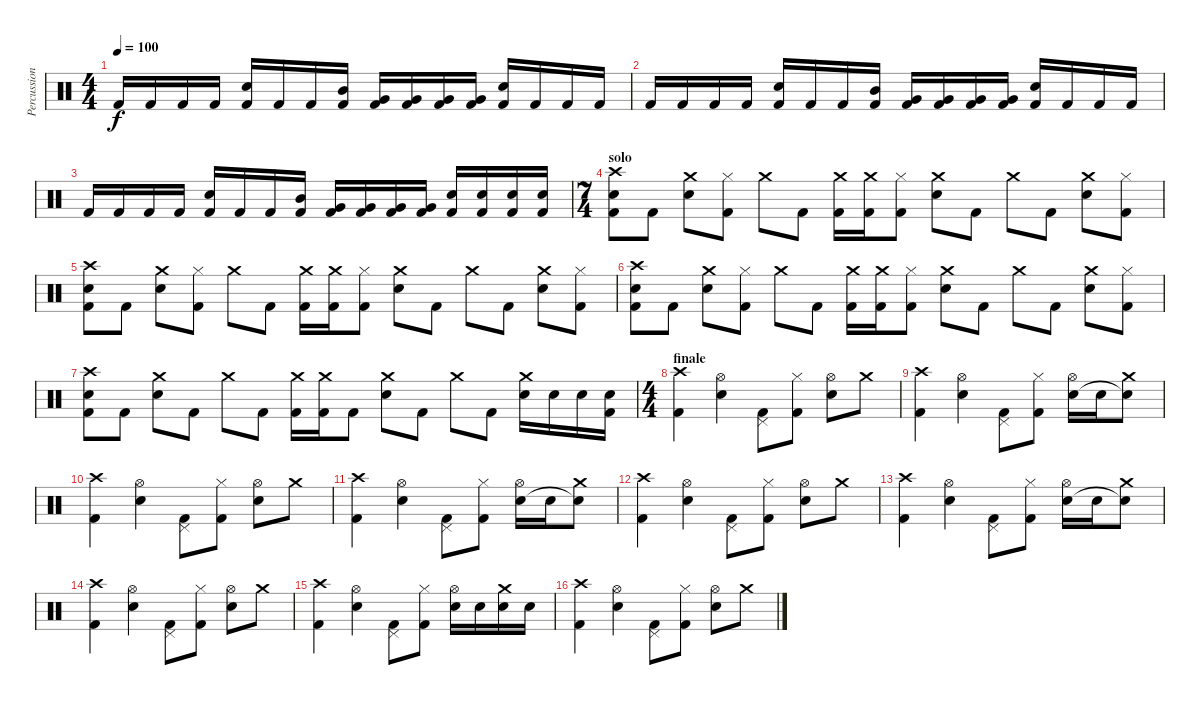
\track ("Percussioni" "Percussion") {instrument percussion}
\staff {score}
\articulation defaults
\ts (4 4)
\tempo 100
\clef neutral
\ks c "Kick (hit) 2".16{dy f} "Kick (hit) 2".16 "Kick (hit) 2".16 "Kick (hit) 2".16
("Snare (hit) 2" "Kick (hit) 2").16 "Kick (hit) 2".16 "Kick (hit) 2".16 ("Mid Tom (hit)" "Kick (hit) 2").16 ("Very Low Tom (hit)" "Kick (hit) 2").16 ("Very Low Tom (hit)" "Kick (hit) 2").16 ("Very Low Tom (hit)" "Kick (hit) 2").16 ("Very Low Tom (hit)" "Kick (hit) 2").16 ("Snare (hit) 2" "Kick (hit) 2").16 "Kick (hit) 2".16 "Kick (hit) 2".16 "Kick (hit) 2".16 |
"Kick (hit) 2".16 "Kick (hit) 2".16 "Kick (hit) 2".16 "Kick (hit) 2".16 ("Snare (hit) 2" "Kick (hit) 2").16 "Kick (hit) 2".16 "Kick (hit) 2".16 ("Mid Tom (hit)" "Kick (hit) 2").16 ("Very Low Tom (hit)" "Kick (hit) 2").16 ("Very Low Tom (hit)" "Kick (hit) 2").16 ("Very Low Tom (hit)" "Kick (hit) 2").16 ("Very Low Tom (hit)" "Kick (hit) 2").16 ("Snare (hit) 2" "Kick (hit) 2").16 "Kick (hit) 2".16 "Kick (hit) 2".16 "Kick (hit) 2".16 |
"Kick (hit) 2".16 "Kick (hit) 2".16 "Kick (hit) 2".16 "Kick (hit) 2".16 ("Snare (hit) 2" "Kick (hit) 2").16 "Kick (hit) 2".16 "Kick (hit) 2".16 ("Mid Tom (hit)" "Kick (hit) 2").16 ("Very Low Tom (hit)" "Kick (hit) 2").16 ("Very Low Tom (hit)" "Kick (hit) 2").16 ("Very Low Tom (hit)" "Kick (hit) 2").16 ("Very Low Tom (hit)" "Kick (hit) 2").16 ("Snare (hit) 2" "Kick (hit) 2").16 ("Snare (hit) 2" "Kick (hit) 2").16 ("Snare (hit) 2" "Kick (hit) 2").16 ("Snare (hit) 2" "Kick (hit) 2").16 |
\ts (7 4)
\section ("" "solo")
("Crash high (hit)" "Snare (hit) 2" "Kick (hit) 2").8 "Kick (hit) 2".8 ("Crash medium (hit)" "Snare (hit) 2").8 ("Hi-Hat (closed)" "Kick (hit) 2").8 "Crash medium (hit)".8 "Kick (hit) 2".8 ("Crash medium (hit)" "Kick (hit) 2").16 ("Crash medium (hit)" "Kick (hit) 2").16 ("Hi-Hat (closed)" "Kick (hit) 2").8 ("Crash medium (hit)" "Snare (hit) 2").8 "Kick (hit) 2".8 "Crash medium (hit)".8 "Kick (hit) 2".8 ("Crash medium (hit)" "Snare (hit) 2").8 ("Hi-Hat (closed)" "Kick (hit) 2").8 |
("Crash high (hit)" "Snare (hit) 2" "Kick (hit) 2").8 "Kick (hit) 2".8 ("Crash medium (hit)" "Snare (hit) 2").8 ("Hi-Hat (closed)" "Kick (hit) 2").8 "Crash medium (hit)".8 "Kick (hit) 2".8 ("Crash medium (hit)" "Kick (hit) 2").16 ("Crash medium (hit)" "Kick (hit) 2").16 ("Hi-Hat (closed)" "Kick (hit) 2").8 ("Crash medium (hit)" "Snare (hit) 2").8 "Kick (hit) 2".8 "Crash medium (hit)".8 "Kick (hit) 2".8 ("Crash medium (hit)" "Snare (hit) 2").8 ("Hi-Hat (closed)" "Kick (hit) 2").8 |
("Crash high (hit)" "Snare (hit) 2" "Kick (hit) 2").8 "Kick (hit) 2".8 ("Crash medium (hit)" "Snare (hit) 2").8 ("Hi-Hat (closed)" "Kick (hit) 2").8 "Crash medium (hit)".8 "Kick (hit) 2".8 ("Crash medium (hit)" "Kick (hit) 2").16 ("Crash medium (hit)" "Kick (hit) 2").16 ("Hi-Hat (closed)" "Kick (hit) 2").8 ("Crash medium (hit)" "Snare (hit) 2").8 "Kick (hit) 2".8 "Crash medium (hit)".8 "Kick (hit) 2".8 ("Crash medium (hit)" "Snare (hit) 2").8 ("Hi-Hat (closed)" "Kick (hit) 2").8 |
("Crash high (hit)" "Snare (hit) 2" "Kick (hit) 2").8 "Kick (hit) 2".8 ("Crash medium (hit)" "Snare (hit) 2").8 "Kick (hit) 2".8 "Crash medium (hit)".8 "Kick (hit) 2".8 ("Crash medium (hit)" "Kick (hit) 2").16 ("Crash medium (hit)" "Kick (hit) 2").16 "Kick (hit) 2".8 ("Crash medium (hit)" "Snare (hit) 2").8 "Kick (hit) 2".8 "Crash medium (hit)".8 "Kick (hit) 2".8 ("Crash medium (hit)" "Snare (hit) 2").16 "Snare (hit) 2".16 "Snare (hit) 2".16 ("Snare (hit) 2" "Kick (hit) 2").16 |
\ts (4 4)
\section ("" "finale")
("Crash high (hit)" "Kick (hit) 2").4 ("Hi-Hat (open)" "Snare (hit) 2").4 ("Pedal Hi-Hat (hit)" "Kick (hit) 2").8 ("Hi-Hat (closed)" "Kick (hit) 2").8 ("Hi-Hat (open)" "Snare (hit) 2").8 "Crash medium (hit)".8 |
("Crash high (hit)" "Kick (hit) 2").4 ("Hi-Hat (open)" "Snare (hit) 2").4 ("Pedal Hi-Hat (hit)" "Kick (hit) 2").8 ("Hi-Hat (closed)" "Kick (hit) 2").8 ("Hi-Hat (open)" "Snare (hit) 2").16 "Snare (hit) 2".16 ("Crash medium (hit)" "Snare (hit)"{t}).8 |
("Crash high (hit)" "Kick (hit) 2").4 ("Hi-Hat (open)" "Snare (hit) 2").4 ("Pedal Hi-Hat (hit)" "Kick (hit) 2").8 ("Hi-Hat (closed)" "Kick (hit) 2").8 ("Hi-Hat (open)" "Snare (hit) 2").8 "Crash medium (hit)".8 |
("Crash high (hit)" "Kick (hit) 2").4 ("Hi-Hat (open)" "Snare (hit) 2").4 ("Pedal Hi-Hat (hit)" "Kick (hit) 2").8 ("Hi-Hat (closed)" "Kick (hit) 2").8 ("Hi-Hat (open)" "Snare (hit) 2").16 "Snare (hit) 2".16 ("Crash medium (hit)" "Snare (hit)"{t}).8 |
("Crash high (hit)" "Kick (hit) 2").4 ("Hi-Hat (open)" "Snare (hit) 2").4 ("Pedal Hi-Hat (hit)" "Kick (hit) 2").8 ("Hi-Hat (closed)" "Kick (hit) 2").8 ("Hi-Hat (open)" "Snare (hit) 2").8 "Crash medium (hit)".8 |
("Crash high (hit)" "Kick (hit) 2").4 ("Hi-Hat (open)" "Snare (hit) 2").4 ("Pedal Hi-Hat (hit)" "Kick (hit) 2").8 ("Hi-Hat (closed)" "Kick (hit) 2").8 ("Hi-Hat (open)" "Snare (hit) 2").16 "Snare (hit) 2".16 ("Crash medium (hit)" "Snare (hit)"{t}).8 |
("Crash high (hit)" "Kick (hit) 2").4 ("Hi-Hat (open)" "Snare (hit) 2").4 ("Pedal Hi-Hat (hit)" "Kick (hit) 2").8 ("Hi-Hat (closed)" "Kick (hit) 2").8 ("Hi-Hat (open)" "Snare (hit) 2").8 "Crash medium (hit)".8 |
("Crash high (hit)" "Kick (hit) 2").4 ("Hi-Hat (open)" "Snare (hit) 2").4 ("Pedal Hi-Hat (hit)" "Kick (hit) 2").8 ("Hi-Hat (closed)" "Kick (hit) 2").8 ("Hi-Hat (open)" "Snare (hit) 2").16 "Snare (hit) 2".16 ("Crash medium (hit)" "Snare (hit) 2").16 "Snare (hit) 2".16 |
("Crash high (hit)" "Kick (hit) 2").4 ("Hi-Hat (open)" "Snare (hit) 2").4 ("Pedal Hi-Hat (hit)" "Kick (hit) 2").8 ("Hi-Hat (closed)" "Kick (hit) 2").8 ("Hi-Hat (open)" "Snare (hit) 2").8 "Crash medium (hit)".8
